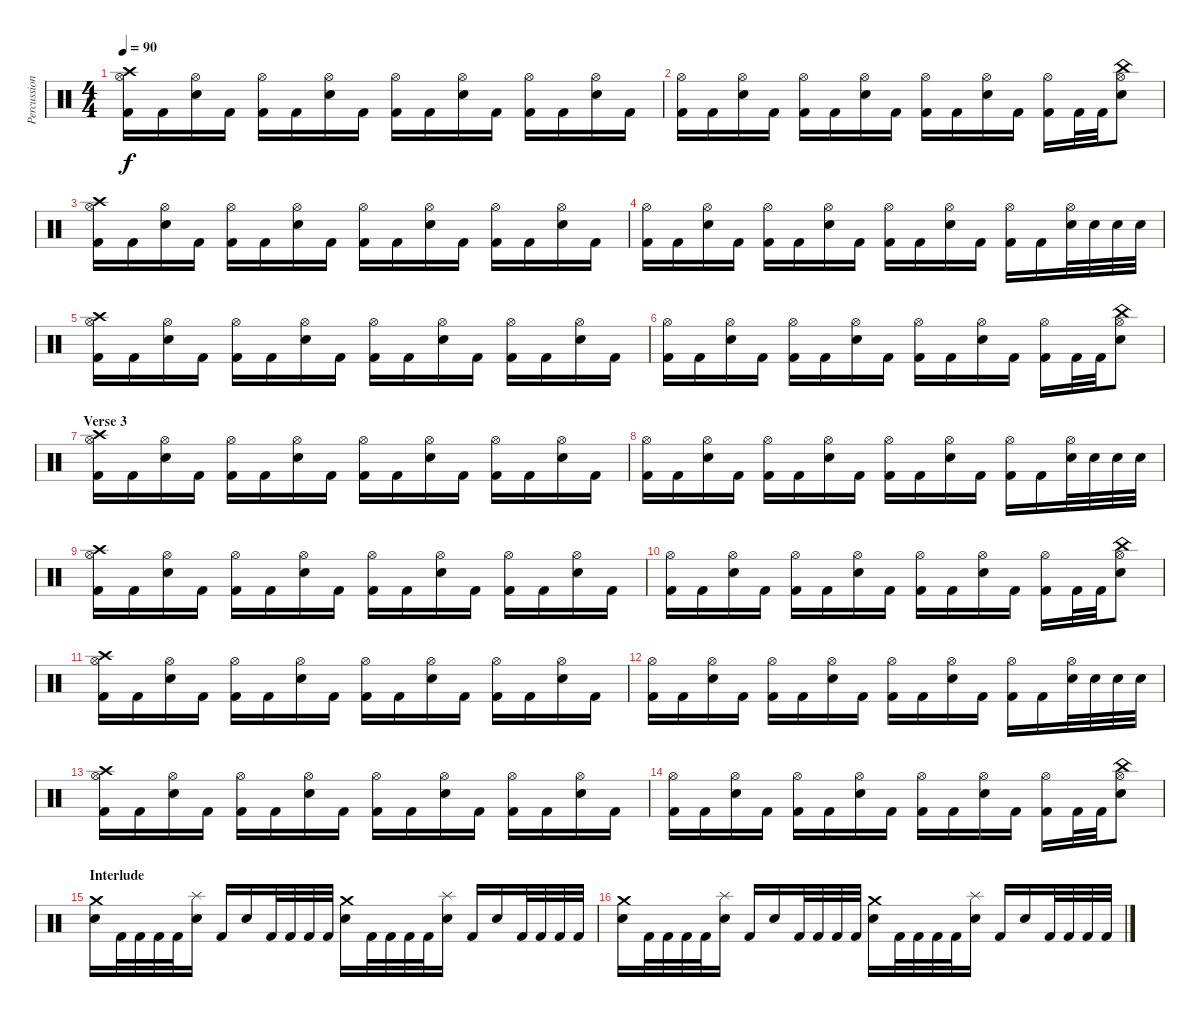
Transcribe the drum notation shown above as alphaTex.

\track ("Percussions" "Percussion") {instrument percussion}
\staff {score}
\articulation defaults
\ts (4 4)
\tempo 90
\clef neutral
\ks c
("Crash high (hit)" "Hi-Hat (open)" "Kick (hit) 2").16{dy f} "Kick (hit) 2".16 ("Hi-Hat (open)" "Electric Snare (hit)").16 "Kick (hit) 2".16 ("Hi-Hat (open)" "Kick (hit) 2").16 "Kick (hit) 2".16 ("Hi-Hat (open)" "Electric Snare (hit)").16 "Kick (hit) 2".16 ("Hi-Hat (open)" "Kick (hit) 2").16 "Kick (hit) 2".16 ("Hi-Hat (open)" "Electric Snare (hit)").16 "Kick (hit) 2".16 ("Hi-Hat (open)" "Kick (hit) 2").16 "Kick (hit) 2".16 ("Hi-Hat (open)" "Electric Snare (hit)").16 "Kick (hit) 2".16 |
("Hi-Hat (open)" "Kick (hit) 2").16 "Kick (hit) 2".16 ("Hi-Hat (open)" "Electric Snare (hit)").16 "Kick (hit) 2".16 ("Hi-Hat (open)" "Kick (hit) 2").16 "Kick (hit) 2".16 ("Hi-Hat (open)" "Electric Snare (hit)").16 "Kick (hit) 2".16 ("Hi-Hat (open)" "Kick (hit) 2").16 "Kick (hit) 2".16 ("Hi-Hat (open)" "Electric Snare (hit)").16 "Kick (hit) 2".16 ("Hi-Hat (open)" "Kick (hit) 2").16 "Kick (hit) 2".32 "Kick (hit) 2".32 ("China (hit)" "Hi-Hat (open)" "Electric Snare (hit)").8 |
("Crash high (hit)" "Hi-Hat (open)" "Kick (hit) 2").16 "Kick (hit) 2".16 ("Hi-Hat (open)" "Electric Snare (hit)").16 "Kick (hit) 2".16 ("Hi-Hat (open)" "Kick (hit) 2").16 "Kick (hit) 2".16 ("Hi-Hat (open)" "Electric Snare (hit)").16 "Kick (hit) 2".16 ("Hi-Hat (open)" "Kick (hit) 2").16 "Kick (hit) 2".16 ("Hi-Hat (open)" "Electric Snare (hit)").16 "Kick (hit) 2".16 ("Hi-Hat (open)" "Kick (hit) 2").16 "Kick (hit) 2".16 ("Hi-Hat (open)" "Electric Snare (hit)").16 "Kick (hit) 2".16 |
("Hi-Hat (open)" "Kick (hit) 2").16 "Kick (hit) 2".16 ("Hi-Hat (open)" "Electric Snare (hit)").16 "Kick (hit) 2".16 ("Hi-Hat (open)" "Kick (hit) 2").16 "Kick (hit) 2".16 ("Hi-Hat (open)" "Electric Snare (hit)").16 "Kick (hit) 2".16 ("Hi-Hat (open)" "Kick (hit) 2").16 "Kick (hit) 2".16 ("Hi-Hat (open)" "Electric Snare (hit)").16 "Kick (hit) 2".16 ("Hi-Hat (open)" "Kick (hit) 2").16 "Kick (hit) 2".16 ("Hi-Hat (open)" "Electric Snare (hit)").32 "Electric Snare (hit)".32 "Electric Snare (hit)".32 "Electric Snare (hit)".32 |
("Crash high (hit)" "Hi-Hat (open)" "Kick (hit) 2").16 "Kick (hit) 2".16 ("Hi-Hat (open)" "Electric Snare (hit)").16 "Kick (hit) 2".16 ("Hi-Hat (open)" "Kick (hit) 2").16 "Kick (hit) 2".16 ("Hi-Hat (open)" "Electric Snare (hit)").16 "Kick (hit) 2".16 ("Hi-Hat (open)" "Kick (hit) 2").16 "Kick (hit) 2".16 ("Hi-Hat (open)" "Electric Snare (hit)").16 "Kick (hit) 2".16 ("Hi-Hat (open)" "Kick (hit) 2").16 "Kick (hit) 2".16 ("Hi-Hat (open)" "Electric Snare (hit)").16 "Kick (hit) 2".16 |
("Hi-Hat (open)" "Kick (hit) 2").16 "Kick (hit) 2".16 ("Hi-Hat (open)" "Electric Snare (hit)").16 "Kick (hit) 2".16 ("Hi-Hat (open)" "Kick (hit) 2").16 "Kick (hit) 2".16 ("Hi-Hat (open)" "Electric Snare (hit)").16 "Kick (hit) 2".16 ("Hi-Hat (open)" "Kick (hit) 2").16 "Kick (hit) 2".16 ("Hi-Hat (open)" "Electric Snare (hit)").16 "Kick (hit) 2".16 ("Hi-Hat (open)" "Kick (hit) 2").16 "Kick (hit) 2".32 "Kick (hit) 2".32 ("China (hit)" "Hi-Hat (open)" "Electric Snare (hit)").8 |
\section ("" "Verse 3")
("Crash high (hit)" "Hi-Hat (open)" "Kick (hit) 2").16 "Kick (hit) 2".16 ("Hi-Hat (open)" "Electric Snare (hit)").16 "Kick (hit) 2".16 ("Hi-Hat (open)" "Kick (hit) 2").16 "Kick (hit) 2".16 ("Hi-Hat (open)" "Electric Snare (hit)").16 "Kick (hit) 2".16 ("Hi-Hat (open)" "Kick (hit) 2").16 "Kick (hit) 2".16 ("Hi-Hat (open)" "Electric Snare (hit)").16 "Kick (hit) 2".16 ("Hi-Hat (open)" "Kick (hit) 2").16 "Kick (hit) 2".16 ("Hi-Hat (open)" "Electric Snare (hit)").16 "Kick (hit) 2".16 |
("Hi-Hat (open)" "Kick (hit) 2").16 "Kick (hit) 2".16 ("Hi-Hat (open)" "Electric Snare (hit)").16 "Kick (hit) 2".16 ("Hi-Hat (open)" "Kick (hit) 2").16 "Kick (hit) 2".16 ("Hi-Hat (open)" "Electric Snare (hit)").16 "Kick (hit) 2".16 ("Hi-Hat (open)" "Kick (hit) 2").16 "Kick (hit) 2".16 ("Hi-Hat (open)" "Electric Snare (hit)").16 "Kick (hit) 2".16 ("Hi-Hat (open)" "Kick (hit) 2").16 "Kick (hit) 2".16 ("Hi-Hat (open)" "Electric Snare (hit)").32 "Electric Snare (hit)".32 "Electric Snare (hit)".32 "Electric Snare (hit)".32 |
("Crash high (hit)" "Hi-Hat (open)" "Kick (hit) 2").16 "Kick (hit) 2".16 ("Hi-Hat (open)" "Electric Snare (hit)").16 "Kick (hit) 2".16 ("Hi-Hat (open)" "Kick (hit) 2").16 "Kick (hit) 2".16 ("Hi-Hat (open)" "Electric Snare (hit)").16 "Kick (hit) 2".16 ("Hi-Hat (open)" "Kick (hit) 2").16 "Kick (hit) 2".16 ("Hi-Hat (open)" "Electric Snare (hit)").16 "Kick (hit) 2".16 ("Hi-Hat (open)" "Kick (hit) 2").16 "Kick (hit) 2".16 ("Hi-Hat (open)" "Electric Snare (hit)").16 "Kick (hit) 2".16 |
("Hi-Hat (open)" "Kick (hit) 2").16 "Kick (hit) 2".16 ("Hi-Hat (open)" "Electric Snare (hit)").16 "Kick (hit) 2".16 ("Hi-Hat (open)" "Kick (hit) 2").16 "Kick (hit) 2".16 ("Hi-Hat (open)" "Electric Snare (hit)").16 "Kick (hit) 2".16 ("Hi-Hat (open)" "Kick (hit) 2").16 "Kick (hit) 2".16 ("Hi-Hat (open)" "Electric Snare (hit)").16 "Kick (hit) 2".16 ("Hi-Hat (open)" "Kick (hit) 2").16 "Kick (hit) 2".32 "Kick (hit) 2".32 ("China (hit)" "Hi-Hat (open)" "Electric Snare (hit)").8 |
("Crash high (hit)" "Hi-Hat (open)" "Kick (hit) 2").16 "Kick (hit) 2".16 ("Hi-Hat (open)" "Electric Snare (hit)").16 "Kick (hit) 2".16 ("Hi-Hat (open)" "Kick (hit) 2").16 "Kick (hit) 2".16 ("Hi-Hat (open)" "Electric Snare (hit)").16 "Kick (hit) 2".16 ("Hi-Hat (open)" "Kick (hit) 2").16 "Kick (hit) 2".16 ("Hi-Hat (open)" "Electric Snare (hit)").16 "Kick (hit) 2".16 ("Hi-Hat (open)" "Kick (hit) 2").16 "Kick (hit) 2".16 ("Hi-Hat (open)" "Electric Snare (hit)").16 "Kick (hit) 2".16 |
("Hi-Hat (open)" "Kick (hit) 2").16 "Kick (hit) 2".16 ("Hi-Hat (open)" "Electric Snare (hit)").16 "Kick (hit) 2".16 ("Hi-Hat (open)" "Kick (hit) 2").16 "Kick (hit) 2".16 ("Hi-Hat (open)" "Electric Snare (hit)").16 "Kick (hit) 2".16 ("Hi-Hat (open)" "Kick (hit) 2").16 "Kick (hit) 2".16 ("Hi-Hat (open)" "Electric Snare (hit)").16 "Kick (hit) 2".16 ("Hi-Hat (open)" "Kick (hit) 2").16 "Kick (hit) 2".16 ("Hi-Hat (open)" "Electric Snare (hit)").32 "Electric Snare (hit)".32 "Electric Snare (hit)".32 "Electric Snare (hit)".32 |
("Crash high (hit)" "Hi-Hat (open)" "Kick (hit) 2").16 "Kick (hit) 2".16 ("Hi-Hat (open)" "Electric Snare (hit)").16 "Kick (hit) 2".16 ("Hi-Hat (open)" "Kick (hit) 2").16 "Kick (hit) 2".16 ("Hi-Hat (open)" "Electric Snare (hit)").16 "Kick (hit) 2".16 ("Hi-Hat (open)" "Kick (hit) 2").16 "Kick (hit) 2".16 ("Hi-Hat (open)" "Electric Snare (hit)").16 "Kick (hit) 2".16 ("Hi-Hat (open)" "Kick (hit) 2").16 "Kick (hit) 2".16 ("Hi-Hat (open)" "Electric Snare (hit)").16 "Kick (hit) 2".16 |
("Hi-Hat (open)" "Kick (hit) 2").16 "Kick (hit) 2".16 ("Hi-Hat (open)" "Electric Snare (hit)").16 "Kick (hit) 2".16 ("Hi-Hat (open)" "Kick (hit) 2").16 "Kick (hit) 2".16 ("Hi-Hat (open)" "Electric Snare (hit)").16 "Kick (hit) 2".16 ("Hi-Hat (open)" "Kick (hit) 2").16 "Kick (hit) 2".16 ("Hi-Hat (open)" "Electric Snare (hit)").16 "Kick (hit) 2".16 ("Hi-Hat (open)" "Kick (hit) 2").16 "Kick (hit) 2".32 "Kick (hit) 2".32 ("China (hit)" "Hi-Hat (open)" "Electric Snare (hit)").8 |
\section ("" "Interlude")
("Crash medium (hit)" "Electric Snare (hit)").16 "Kick (hit) 2".32 "Kick (hit) 2".32 "Kick (hit) 2".32 "Kick (hit) 2".32 ("Splash (hit)" "Electric Snare (hit)").16 "Kick (hit) 2".16 "Electric Snare (hit)".16 "Kick (hit) 2".32 "Kick (hit) 2".32 "Kick (hit) 2".32 "Kick (hit) 2".32 ("Crash medium (hit)" "Electric Snare (hit)").16 "Kick (hit) 2".32 "Kick (hit) 2".32 "Kick (hit) 2".32 "Kick (hit) 2".32 ("Splash (hit)" "Electric Snare (hit)").16 "Kick (hit) 2".16 "Electric Snare (hit)".16 "Kick (hit) 2".32 "Kick (hit) 2".32 "Kick (hit) 2".32 "Kick (hit) 2".32 |
("Crash medium (hit)" "Electric Snare (hit)").16 "Kick (hit) 2".32 "Kick (hit) 2".32 "Kick (hit) 2".32 "Kick (hit) 2".32 ("Splash (hit)" "Electric Snare (hit)").16 "Kick (hit) 2".16 "Electric Snare (hit)".16 "Kick (hit) 2".32 "Kick (hit) 2".32 "Kick (hit) 2".32 "Kick (hit) 2".32 ("Crash medium (hit)" "Electric Snare (hit)").16 "Kick (hit) 2".32 "Kick (hit) 2".32 "Kick (hit) 2".32 "Kick (hit) 2".32 ("Splash (hit)" "Electric Snare (hit)").16 "Kick (hit) 2".16 "Electric Snare (hit)".16 "Kick (hit) 2".32 "Kick (hit) 2".32 "Kick (hit) 2".32 "Kick (hit) 2".32
